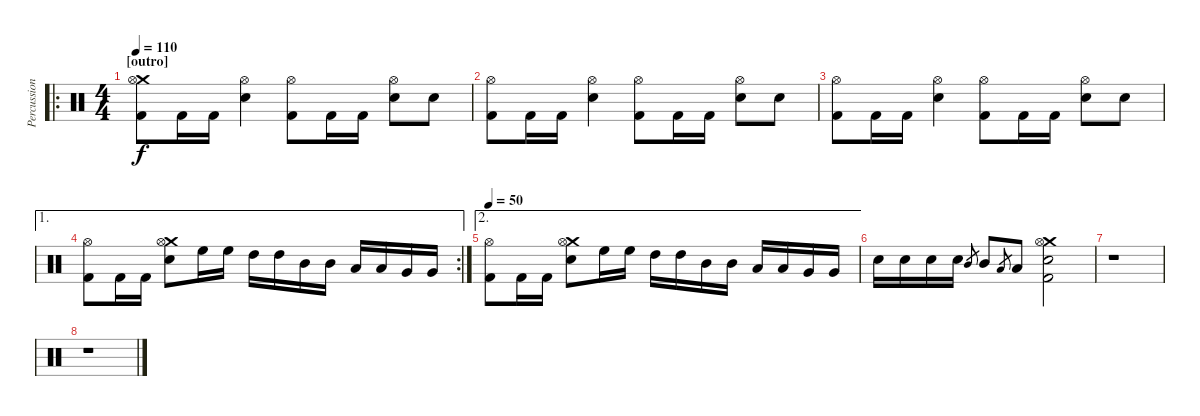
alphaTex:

\track ("Percussion" "Percussion") {instrument percussion}
\staff {score}
\articulation defaults
\ro
\ts (4 4)
\section ("" "[outro]")
\tempo 110
\clef neutral
\ks c
("Crash medium (hit)" "Hi-Hat (open)" "Kick (hit) 2").8{dy f} "Kick (hit) 2".16 "Kick (hit) 2".16 ("Hi-Hat (open)" "Electric Snare (hit)").4 ("Hi-Hat (open)" "Kick (hit) 2").8 "Kick (hit) 2".16 "Kick (hit) 2".16 ("Hi-Hat (open)" "Electric Snare (hit)").8 "Electric Snare (hit)".8 |
("Hi-Hat (open)" "Kick (hit) 2").8 "Kick (hit) 2".16 "Kick (hit) 2".16 ("Hi-Hat (open)" "Electric Snare (hit)").4 ("Hi-Hat (open)" "Kick (hit) 2").8 "Kick (hit) 2".16 "Kick (hit) 2".16 ("Hi-Hat (open)" "Electric Snare (hit)").8 "Electric Snare (hit)".8 |
("Hi-Hat (open)" "Kick (hit) 2").8 "Kick (hit) 2".16 "Kick (hit) 2".16 ("Hi-Hat (open)" "Electric Snare (hit)").4 ("Hi-Hat (open)" "Kick (hit) 2").8 "Kick (hit) 2".16 "Kick (hit) 2".16 ("Hi-Hat (open)" "Electric Snare (hit)").8 "Electric Snare (hit)".8 |
\ae 1
\rc 2
("Hi-Hat (open)" "Kick (hit) 2").8 "Kick (hit) 2".16 "Kick (hit) 2".16 ("Crash medium (hit)" "Hi-Hat (open)" "Electric Snare (hit)").8 "High Floor Tom (hit)".16 "High Floor Tom (hit)".16 "High Tom (hit)".16 "High Tom (hit)".16 "Mid Tom (hit)".16 "Mid Tom (hit)".16 "Low Tom (hit)".16 "Low Tom (hit)".16 "Very Low Tom (hit)".16 "Very Low Tom (hit)".16 |
\ae 2
\tempo 50
("Hi-Hat (open)" "Kick (hit) 2").8 "Kick (hit) 2".16 "Kick (hit) 2".16 ("Crash medium (hit)" "Hi-Hat (open)" "Electric Snare (hit)").8 "High Floor Tom (hit)".16 "High Floor Tom (hit)".16 "High Tom (hit)".16 "High Tom (hit)".16 "Mid Tom (hit)".16 "Mid Tom (hit)".16 "Low Tom (hit)".16 "Low Tom (hit)".16 "Very Low Tom (hit)".16 "Very Low Tom (hit)".16 |
"Electric Snare (hit)".16 "Electric Snare (hit)".16 "Electric Snare (hit)".16 "Electric Snare (hit)".16 "Mid Tom (hit)".8{gr} "Mid Tom (hit)".8 "Low Tom (hit)".8{gr} "Low Tom (hit)".8 ("Crash medium (hit)" "Hi-Hat (open)" "Electric Snare (hit)" "Kick (hit) 2").2 |
r.1 |
r.1
